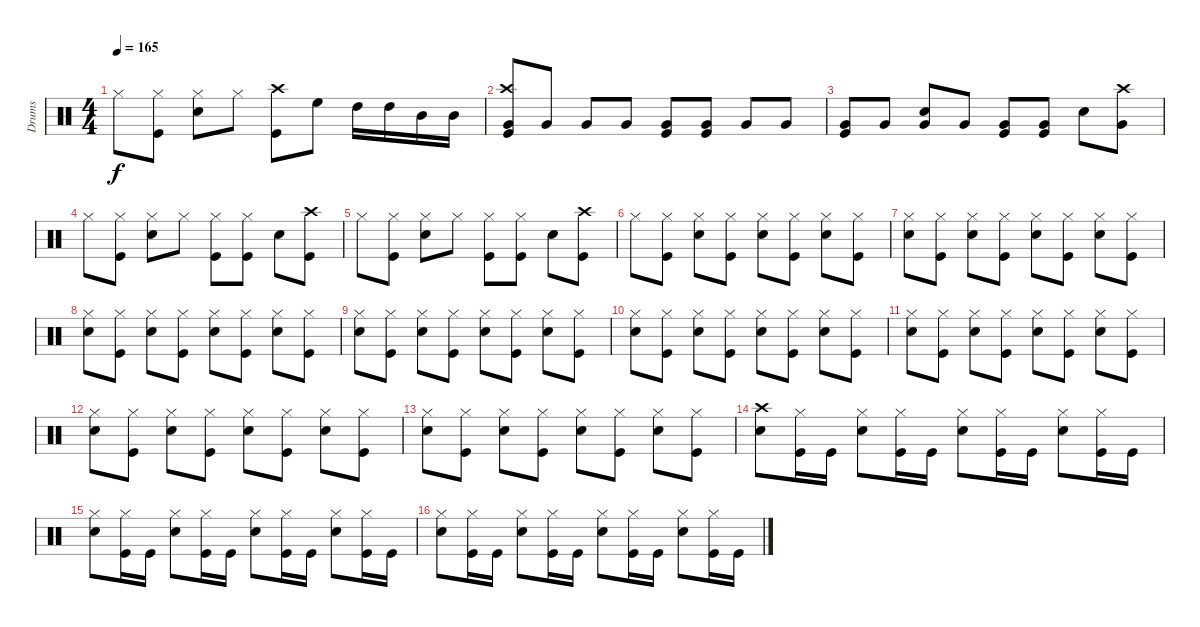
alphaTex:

\track ("Drums" "Drums") {instrument percussion}
\staff {score}
\articulation defaults
\ts (4 4)
\tempo 165
\clef neutral
\ks c "Hi-Hat (closed)".8{dy f}
("Hi-Hat (closed)" "Kick (hit)").8 ("Hi-Hat (closed)" "Snare (hit) 2").8 "Hi-Hat (closed)".8 ("Crash high (hit)" "Kick (hit)").8 "High Floor Tom (hit)".8 "High Tom (hit)".16 "High Tom (hit)".16 "Mid Tom (hit)".16 "Mid Tom (hit)".16 |
("Crash high (hit)" "Very Low Tom (hit)" "Kick (hit)").8 "Very Low Tom (hit)".8 "Very Low Tom (hit)".8 "Very Low Tom (hit)".8 ("Very Low Tom (hit)" "Kick (hit)").8 ("Very Low Tom (hit)" "Kick (hit)").8 "Very Low Tom (hit)".8 "Very Low Tom (hit)".8 |
("Very Low Tom (hit)" "Kick (hit)").8 "Very Low Tom (hit)".8 ("Snare (hit) 2" "Very Low Tom (hit)").8 "Very Low Tom (hit)".8 ("Very Low Tom (hit)" "Kick (hit)").8 ("Very Low Tom (hit)" "Kick (hit)").8 "Snare (hit) 2".8 ("Crash high (hit)" "Very Low Tom (hit)").8 |
"Hi-Hat (closed)".8 ("Hi-Hat (closed)" "Kick (hit)").8 ("Hi-Hat (closed)" "Snare (hit) 2").8 "Hi-Hat (closed)".8 ("Hi-Hat (closed)" "Kick (hit)").8 ("Hi-Hat (closed)" "Kick (hit)").8 "Snare (hit) 2".8 ("Crash high (hit)" "Kick (hit)").8 |
"Hi-Hat (closed)".8 ("Hi-Hat (closed)" "Kick (hit)").8 ("Hi-Hat (closed)" "Snare (hit) 2").8 "Hi-Hat (closed)".8 ("Hi-Hat (closed)" "Kick (hit)").8 ("Hi-Hat (closed)" "Kick (hit)").8 "Snare (hit) 2".8 ("Crash high (hit)" "Kick (hit)").8 |
"Hi-Hat (closed)".8 ("Hi-Hat (closed)" "Kick (hit)").8 ("Hi-Hat (closed)" "Snare (hit) 2").8 ("Hi-Hat (closed)" "Kick (hit)").8 ("Hi-Hat (closed)" "Snare (hit) 2").8 ("Hi-Hat (closed)" "Kick (hit)").8 ("Hi-Hat (closed)" "Snare (hit) 2").8 ("Hi-Hat (closed)" "Kick (hit)").8 |
("Hi-Hat (closed)" "Snare (hit) 2").8 ("Hi-Hat (closed)" "Kick (hit)").8 ("Hi-Hat (closed)" "Snare (hit) 2").8 ("Hi-Hat (closed)" "Kick (hit)").8 ("Hi-Hat (closed)" "Snare (hit) 2").8 ("Hi-Hat (closed)" "Kick (hit)").8 ("Hi-Hat (closed)" "Snare (hit) 2").8 ("Hi-Hat (closed)" "Kick (hit)").8 |
("Hi-Hat (closed)" "Snare (hit) 2").8 ("Hi-Hat (closed)" "Kick (hit)").8 ("Hi-Hat (closed)" "Snare (hit) 2").8 ("Hi-Hat (closed)" "Kick (hit)").8 ("Hi-Hat (closed)" "Snare (hit) 2").8 ("Hi-Hat (closed)" "Kick (hit)").8 ("Hi-Hat (closed)" "Snare (hit) 2").8 ("Hi-Hat (closed)" "Kick (hit)").8 |
("Hi-Hat (closed)" "Snare (hit) 2").8 ("Hi-Hat (closed)" "Kick (hit)").8 ("Hi-Hat (closed)" "Snare (hit) 2").8 ("Hi-Hat (closed)" "Kick (hit)").8 ("Hi-Hat (closed)" "Snare (hit) 2").8 ("Hi-Hat (closed)" "Kick (hit)").8 ("Hi-Hat (closed)" "Snare (hit) 2").8 ("Hi-Hat (closed)" "Kick (hit)").8 |
("Hi-Hat (closed)" "Snare (hit) 2").8 ("Hi-Hat (closed)" "Kick (hit)").8 ("Hi-Hat (closed)" "Snare (hit) 2").8 ("Hi-Hat (closed)" "Kick (hit)").8 ("Hi-Hat (closed)" "Snare (hit) 2").8 ("Hi-Hat (closed)" "Kick (hit)").8 ("Hi-Hat (closed)" "Snare (hit) 2").8 ("Hi-Hat (closed)" "Kick (hit)").8 |
("Hi-Hat (closed)" "Snare (hit) 2").8 ("Hi-Hat (closed)" "Kick (hit)").8 ("Hi-Hat (closed)" "Snare (hit) 2").8 ("Hi-Hat (closed)" "Kick (hit)").8 ("Hi-Hat (closed)" "Snare (hit) 2").8 ("Hi-Hat (closed)" "Kick (hit)").8 ("Hi-Hat (closed)" "Snare (hit) 2").8 ("Hi-Hat (closed)" "Kick (hit)").8 |
("Hi-Hat (closed)" "Snare (hit) 2").8 ("Hi-Hat (closed)" "Kick (hit)").8 ("Hi-Hat (closed)" "Snare (hit) 2").8 ("Hi-Hat (closed)" "Kick (hit)").8 ("Hi-Hat (closed)" "Snare (hit) 2").8 ("Hi-Hat (closed)" "Kick (hit)").8 ("Hi-Hat (closed)" "Snare (hit) 2").8 ("Hi-Hat (closed)" "Kick (hit)").8 |
("Hi-Hat (closed)" "Snare (hit) 2").8 ("Hi-Hat (closed)" "Kick (hit)").8 ("Hi-Hat (closed)" "Snare (hit) 2").8 ("Hi-Hat (closed)" "Kick (hit)").8 ("Hi-Hat (closed)" "Snare (hit) 2").8 ("Hi-Hat (closed)" "Kick (hit)").8 ("Hi-Hat (closed)" "Snare (hit) 2").8 ("Hi-Hat (closed)" "Kick (hit)").8 |
("Crash high (hit)" "Snare (hit) 2").8 ("Hi-Hat (closed)" "Kick (hit)").16 "Kick (hit)".16 ("Hi-Hat (closed)" "Snare (hit) 2").8 ("Hi-Hat (closed)" "Kick (hit)").16 "Kick (hit)".16 ("Hi-Hat (closed)" "Snare (hit) 2").8 ("Hi-Hat (closed)" "Kick (hit)").16 "Kick (hit)".16 ("Hi-Hat (closed)" "Snare (hit) 2").8 ("Hi-Hat (closed)" "Kick (hit)").16 "Kick (hit)".16 |
("Hi-Hat (closed)" "Snare (hit) 2").8 ("Hi-Hat (closed)" "Kick (hit)").16 "Kick (hit)".16 ("Hi-Hat (closed)" "Snare (hit) 2").8 ("Hi-Hat (closed)" "Kick (hit)").16 "Kick (hit)".16 ("Hi-Hat (closed)" "Snare (hit) 2").8 ("Hi-Hat (closed)" "Kick (hit)").16 "Kick (hit)".16 ("Hi-Hat (closed)" "Snare (hit) 2").8 ("Hi-Hat (closed)" "Kick (hit)").16 "Kick (hit)".16 |
("Hi-Hat (closed)" "Snare (hit) 2").8 ("Hi-Hat (closed)" "Kick (hit)").16 "Kick (hit)".16 ("Hi-Hat (closed)" "Snare (hit) 2").8 ("Hi-Hat (closed)" "Kick (hit)").16 "Kick (hit)".16 ("Hi-Hat (closed)" "Snare (hit) 2").8 ("Hi-Hat (closed)" "Kick (hit)").16 "Kick (hit)".16 ("Hi-Hat (closed)" "Snare (hit) 2").8 ("Hi-Hat (closed)" "Kick (hit)").16 "Kick (hit)".16
